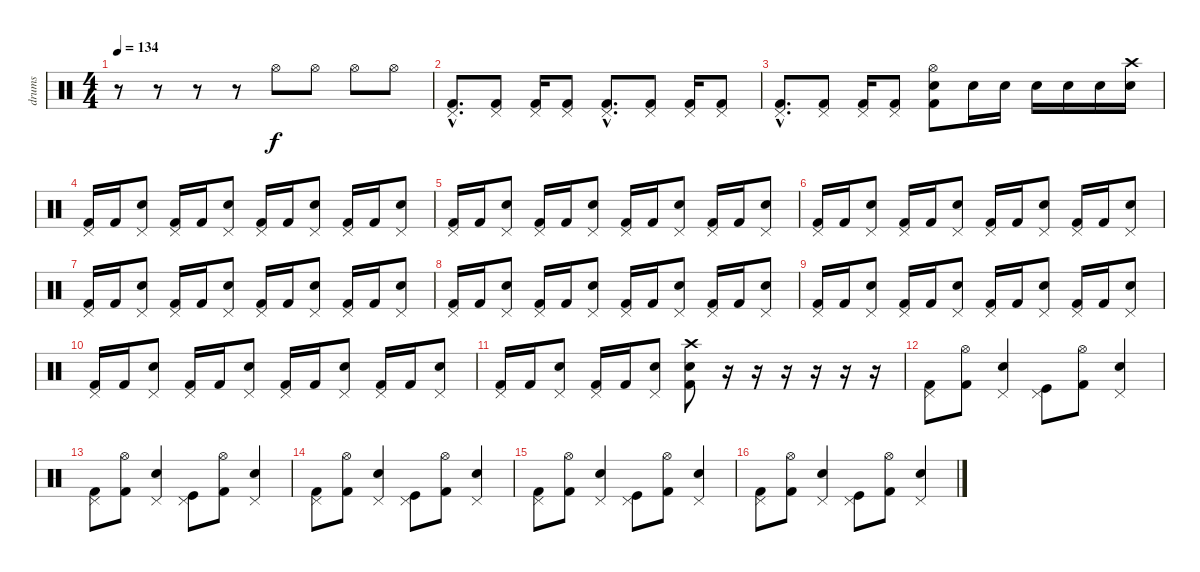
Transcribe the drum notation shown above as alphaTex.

\track ("drums" "drums") {instrument percussion}
\staff {score}
\articulation defaults
\ts (4 4)
\tempo 134
\clef neutral
\ks c
r.8{dy f} r.8 r.8 r.8 "Hi-Hat (open)".8 "Hi-Hat (open)".8 "Hi-Hat (open)".8 "Hi-Hat (open)".8 |
("Kick (hit) 2"{hac} "Pedal Hi-Hat (hit)"{hac}).8{d} ("Kick (hit) 2" "Pedal Hi-Hat (hit)").8 ("Kick (hit) 2" "Pedal Hi-Hat (hit)").16 ("Kick (hit) 2" "Pedal Hi-Hat (hit)").8 ("Kick (hit) 2"{hac} "Pedal Hi-Hat (hit)"{hac}).8{d} ("Kick (hit) 2" "Pedal Hi-Hat (hit)").8 ("Kick (hit) 2" "Pedal Hi-Hat (hit)").16 ("Kick (hit) 2" "Pedal Hi-Hat (hit)").8 |
("Kick (hit) 2"{hac} "Pedal Hi-Hat (hit)"{hac}).8{d} ("Kick (hit) 2" "Pedal Hi-Hat (hit)").8 ("Kick (hit) 2" "Pedal Hi-Hat (hit)").16 ("Kick (hit) 2" "Pedal Hi-Hat (hit)").8 ("Electric Snare (hit)" "Kick (hit) 2" "Hi-Hat (open)").8 "Electric Snare (hit)".16 "Electric Snare (hit)".16 "Electric Snare (hit)".16 "Electric Snare (hit)".16 "Electric Snare (hit)".16 ("Electric Snare (hit)" "Crash high (hit)").16 |
("Kick (hit) 2" "Pedal Hi-Hat (hit)").16 "Kick (hit) 2".16 ("Electric Snare (hit)" "Pedal Hi-Hat (hit)").8 ("Kick (hit) 2" "Pedal Hi-Hat (hit)").16 "Kick (hit) 2".16 ("Electric Snare (hit)" "Pedal Hi-Hat (hit)").8 ("Kick (hit) 2" "Pedal Hi-Hat (hit)").16 "Kick (hit) 2".16 ("Electric Snare (hit)" "Pedal Hi-Hat (hit)").8 ("Kick (hit) 2" "Pedal Hi-Hat (hit)").16 "Kick (hit) 2".16 ("Electric Snare (hit)" "Pedal Hi-Hat (hit)").8 |
("Kick (hit) 2" "Pedal Hi-Hat (hit)").16 "Kick (hit) 2".16 ("Electric Snare (hit)" "Pedal Hi-Hat (hit)").8 ("Kick (hit) 2" "Pedal Hi-Hat (hit)").16 "Kick (hit) 2".16 ("Electric Snare (hit)" "Pedal Hi-Hat (hit)").8 ("Kick (hit) 2" "Pedal Hi-Hat (hit)").16 "Kick (hit) 2".16 ("Electric Snare (hit)" "Pedal Hi-Hat (hit)").8 ("Kick (hit) 2" "Pedal Hi-Hat (hit)").16 "Kick (hit) 2".16 ("Electric Snare (hit)" "Pedal Hi-Hat (hit)").8 |
("Kick (hit) 2" "Pedal Hi-Hat (hit)").16 "Kick (hit) 2".16 ("Electric Snare (hit)" "Pedal Hi-Hat (hit)").8 ("Kick (hit) 2" "Pedal Hi-Hat (hit)").16 "Kick (hit) 2".16 ("Electric Snare (hit)" "Pedal Hi-Hat (hit)").8 ("Kick (hit) 2" "Pedal Hi-Hat (hit)").16 "Kick (hit) 2".16 ("Electric Snare (hit)" "Pedal Hi-Hat (hit)").8 ("Kick (hit) 2" "Pedal Hi-Hat (hit)").16 "Kick (hit) 2".16 ("Electric Snare (hit)" "Pedal Hi-Hat (hit)").8 |
("Kick (hit) 2" "Pedal Hi-Hat (hit)").16 "Kick (hit) 2".16 ("Electric Snare (hit)" "Pedal Hi-Hat (hit)").8 ("Kick (hit) 2" "Pedal Hi-Hat (hit)").16 "Kick (hit) 2".16 ("Electric Snare (hit)" "Pedal Hi-Hat (hit)").8 ("Kick (hit) 2" "Pedal Hi-Hat (hit)").16 "Kick (hit) 2".16 ("Electric Snare (hit)" "Pedal Hi-Hat (hit)").8 ("Kick (hit) 2" "Pedal Hi-Hat (hit)").16 "Kick (hit) 2".16 ("Electric Snare (hit)" "Pedal Hi-Hat (hit)").8 |
("Kick (hit) 2" "Pedal Hi-Hat (hit)").16 "Kick (hit) 2".16 ("Electric Snare (hit)" "Pedal Hi-Hat (hit)").8 ("Kick (hit) 2" "Pedal Hi-Hat (hit)").16 "Kick (hit) 2".16 ("Electric Snare (hit)" "Pedal Hi-Hat (hit)").8 ("Kick (hit) 2" "Pedal Hi-Hat (hit)").16 "Kick (hit) 2".16 ("Electric Snare (hit)" "Pedal Hi-Hat (hit)").8 ("Kick (hit) 2" "Pedal Hi-Hat (hit)").16 "Kick (hit) 2".16 ("Electric Snare (hit)" "Pedal Hi-Hat (hit)").8 |
("Kick (hit) 2" "Pedal Hi-Hat (hit)").16 "Kick (hit) 2".16 ("Electric Snare (hit)" "Pedal Hi-Hat (hit)").8 ("Kick (hit) 2" "Pedal Hi-Hat (hit)").16 "Kick (hit) 2".16 ("Electric Snare (hit)" "Pedal Hi-Hat (hit)").8 ("Kick (hit) 2" "Pedal Hi-Hat (hit)").16 "Kick (hit) 2".16 ("Electric Snare (hit)" "Pedal Hi-Hat (hit)").8 ("Kick (hit) 2" "Pedal Hi-Hat (hit)").16 "Kick (hit) 2".16 ("Electric Snare (hit)" "Pedal Hi-Hat (hit)").8 |
("Kick (hit) 2" "Pedal Hi-Hat (hit)").16 "Kick (hit) 2".16 ("Electric Snare (hit)" "Pedal Hi-Hat (hit)").8 ("Kick (hit) 2" "Pedal Hi-Hat (hit)").16 "Kick (hit) 2".16 ("Electric Snare (hit)" "Pedal Hi-Hat (hit)").8 ("Kick (hit) 2" "Pedal Hi-Hat (hit)").16 "Kick (hit) 2".16 ("Electric Snare (hit)" "Pedal Hi-Hat (hit)").8 ("Kick (hit) 2" "Pedal Hi-Hat (hit)").16 "Kick (hit) 2".16 ("Electric Snare (hit)" "Pedal Hi-Hat (hit)").8 |
("Kick (hit) 2" "Pedal Hi-Hat (hit)").16 "Kick (hit) 2".16 ("Electric Snare (hit)" "Pedal Hi-Hat (hit)").8 ("Kick (hit) 2" "Pedal Hi-Hat (hit)").16 "Kick (hit) 2".16 ("Electric Snare (hit)" "Pedal Hi-Hat (hit)").8 ("Kick (hit) 2" "Electric Snare (hit)" "Crash high (hit)").8 r.16 r.16 r.16 r.16 r.16 r.16 |
("Kick (hit) 2" "Pedal Hi-Hat (hit)").8 ("Kick (hit) 2" "Hi-Hat (open)").8 ("Electric Snare (hit)" "Pedal Hi-Hat (hit)").4 ("Kick (hit)" "Pedal Hi-Hat (hit)").8 ("Kick (hit) 2" "Hi-Hat (open)").8 ("Electric Snare (hit)" "Pedal Hi-Hat (hit)").4 |
("Kick (hit) 2" "Pedal Hi-Hat (hit)").8 ("Kick (hit) 2" "Hi-Hat (open)").8 ("Electric Snare (hit)" "Pedal Hi-Hat (hit)").4 ("Kick (hit)" "Pedal Hi-Hat (hit)").8 ("Kick (hit) 2" "Hi-Hat (open)").8 ("Electric Snare (hit)" "Pedal Hi-Hat (hit)").4 |
("Kick (hit) 2" "Pedal Hi-Hat (hit)").8 ("Kick (hit) 2" "Hi-Hat (open)").8 ("Electric Snare (hit)" "Pedal Hi-Hat (hit)").4 ("Kick (hit)" "Pedal Hi-Hat (hit)").8 ("Kick (hit) 2" "Hi-Hat (open)").8 ("Electric Snare (hit)" "Pedal Hi-Hat (hit)").4 |
("Kick (hit) 2" "Pedal Hi-Hat (hit)").8 ("Kick (hit) 2" "Hi-Hat (open)").8 ("Electric Snare (hit)" "Pedal Hi-Hat (hit)").4 ("Kick (hit)" "Pedal Hi-Hat (hit)").8 ("Kick (hit) 2" "Hi-Hat (open)").8 ("Electric Snare (hit)" "Pedal Hi-Hat (hit)").4 |
("Kick (hit) 2" "Pedal Hi-Hat (hit)").8 ("Kick (hit) 2" "Hi-Hat (open)").8 ("Electric Snare (hit)" "Pedal Hi-Hat (hit)").4 ("Kick (hit)" "Pedal Hi-Hat (hit)").8 ("Kick (hit) 2" "Hi-Hat (open)").8 ("Electric Snare (hit)" "Pedal Hi-Hat (hit)").4
